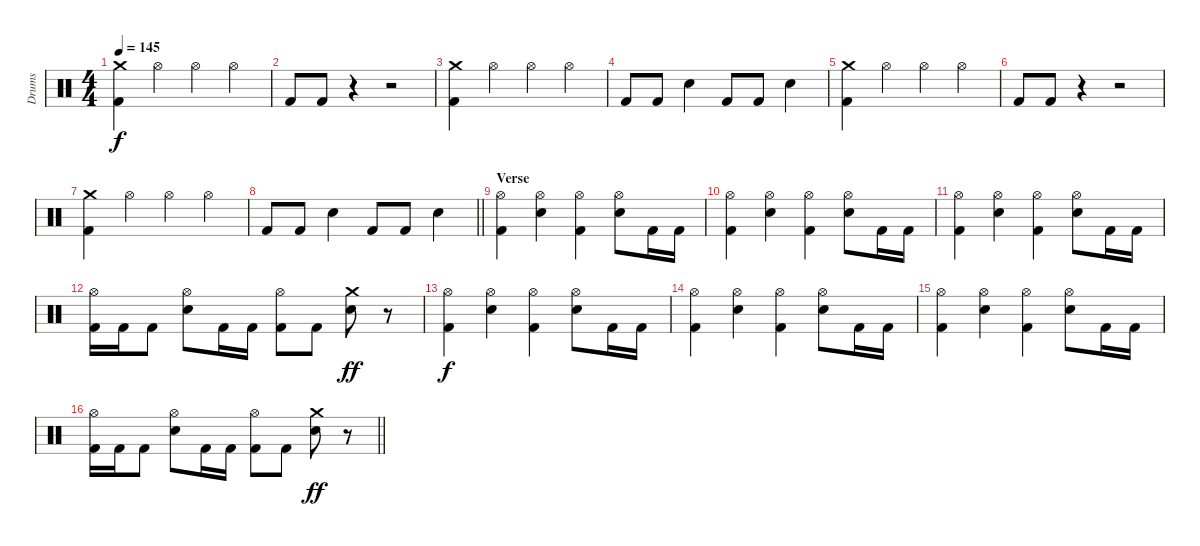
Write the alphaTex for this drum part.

\track ("Drums" "Drums") {instrument percussion}
\staff {score}
\articulation defaults
\ts (4 4)
\tempo 145
\clef neutral
\ks c
("Crash medium (hit)" "Kick (hit) 2").4{dy f} "Hi-Hat (open)".4 "Hi-Hat (open)".4 "Hi-Hat (open)".4 |
"Kick (hit) 2".8 "Kick (hit) 2".8 r.4 r.2 |
("Crash medium (hit)" "Kick (hit) 2").4 "Hi-Hat (open)".4 "Hi-Hat (open)".4 "Hi-Hat (open)".4 |
"Kick (hit) 2".8 "Kick (hit) 2".8 "Electric Snare (hit)".4 "Kick (hit) 2".8 "Kick (hit) 2".8 "Electric Snare (hit)".4 |
("Crash medium (hit)" "Kick (hit) 2").4 "Hi-Hat (open)".4 "Hi-Hat (open)".4 "Hi-Hat (open)".4 |
"Kick (hit) 2".8 "Kick (hit) 2".8 r.4 r.2 |
("Crash medium (hit)" "Kick (hit) 2").4 "Hi-Hat (open)".4 "Hi-Hat (open)".4 "Hi-Hat (open)".4 |
\barLineRight lightlight "Kick (hit) 2".8 "Kick (hit) 2".8 "Electric Snare (hit)".4 "Kick (hit) 2".8 "Kick (hit) 2".8 "Electric Snare (hit)".4
|
\section ("" "Verse")
("Hi-Hat (open)" "Kick (hit) 2").4 ("Hi-Hat (open)" "Electric Snare (hit)").4 ("Hi-Hat (open)" "Kick (hit) 2").4 ("Hi-Hat (open)" "Electric Snare (hit)").8 "Kick (hit) 2".16 "Kick (hit) 2".16 |
("Hi-Hat (open)" "Kick (hit) 2").4 ("Hi-Hat (open)" "Electric Snare (hit)").4 ("Hi-Hat (open)" "Kick (hit) 2").4 ("Hi-Hat (open)" "Electric Snare (hit)").8 "Kick (hit) 2".16 "Kick (hit) 2".16 |
("Hi-Hat (open)" "Kick (hit) 2").4 ("Hi-Hat (open)" "Electric Snare (hit)").4 ("Hi-Hat (open)" "Kick (hit) 2").4 ("Hi-Hat (open)" "Electric Snare (hit)").8 "Kick (hit) 2".16 "Kick (hit) 2".16 |
("Hi-Hat (open)" "Kick (hit) 2").16 "Kick (hit) 2".16 "Kick (hit) 2".8 ("Hi-Hat (open)" "Electric Snare (hit)").8 "Kick (hit) 2".16 "Kick (hit) 2".16 ("Hi-Hat (open)" "Kick (hit) 2").8 "Kick (hit) 2".8 ("Crash medium (hit)" "Electric Snare (hit)").8{dy ff} r.8 |
("Hi-Hat (open)" "Kick (hit) 2").4{dy f} ("Hi-Hat (open)" "Electric Snare (hit)").4 ("Hi-Hat (open)" "Kick (hit) 2").4 ("Hi-Hat (open)" "Electric Snare (hit)").8 "Kick (hit) 2".16 "Kick (hit) 2".16 |
("Hi-Hat (open)" "Kick (hit) 2").4 ("Hi-Hat (open)" "Electric Snare (hit)").4 ("Hi-Hat (open)" "Kick (hit) 2").4 ("Hi-Hat (open)" "Electric Snare (hit)").8 "Kick (hit) 2".16 "Kick (hit) 2".16 |
("Hi-Hat (open)" "Kick (hit) 2").4 ("Hi-Hat (open)" "Electric Snare (hit)").4 ("Hi-Hat (open)" "Kick (hit) 2").4 ("Hi-Hat (open)" "Electric Snare (hit)").8 "Kick (hit) 2".16 "Kick (hit) 2".16 |
\barLineRight lightlight
("Hi-Hat (open)" "Kick (hit) 2").16 "Kick (hit) 2".16 "Kick (hit) 2".8 ("Hi-Hat (open)" "Electric Snare (hit)").8 "Kick (hit) 2".16 "Kick (hit) 2".16 ("Hi-Hat (open)" "Kick (hit) 2").8 "Kick (hit) 2".8 ("Crash medium (hit)" "Electric Snare (hit)").8{dy ff} r.8
